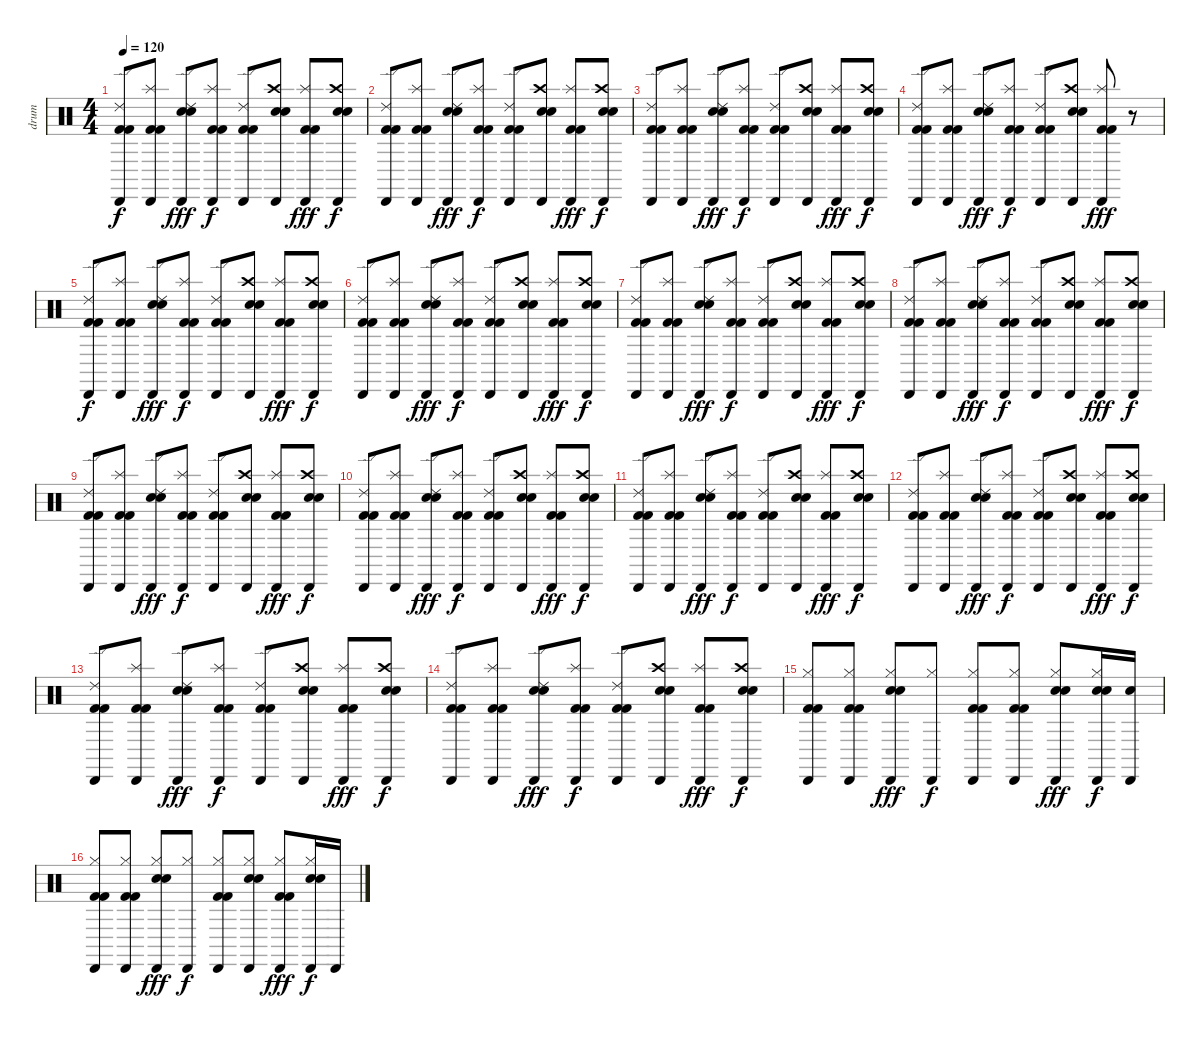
\track ("drum" "drum") {instrument percussion}
\staff {score}
\articulation defaults
\ts (4 4)
\tempo 120
\clef neutral
\ks c
("Cabasa (hit)" "Ride (edge) 2" "Kick (hit) 2" "Kick (hit) 2").8{dy f} ("Cabasa (hit)" "Splash (hit)" "Kick (hit) 2" "Kick (hit) 2").8 ("Cabasa (hit)" "Ride (edge) 2" "Snare (hit) 2" "Snare (hit) 2").8{dy fff} ("Cabasa (hit)" "Splash (hit)" "Kick (hit) 2" "Kick (hit) 2").8{dy f} ("Cabasa (hit)" "Ride (edge) 2" "Kick (hit) 2" "Kick (hit) 2").8 ("Cabasa (hit)" "Crash high (hit)" "Snare (hit) 2" "Snare (hit) 2").8 ("Cabasa (hit)" "Splash (hit)" "Kick (hit) 2" "Kick (hit) 2").8{dy fff} ("Cabasa (hit)" "Crash high (hit)" "Snare (hit) 2" "Snare (hit) 2").8{dy f} |
("Cabasa (hit)" "Ride (edge) 2" "Kick (hit) 2" "Kick (hit) 2").8 ("Cabasa (hit)" "Splash (hit)" "Kick (hit) 2" "Kick (hit) 2").8 ("Cabasa (hit)" "Ride (edge) 2" "Snare (hit) 2" "Snare (hit) 2").8{dy fff} ("Cabasa (hit)" "Splash (hit)" "Kick (hit) 2" "Kick (hit) 2").8{dy f} ("Cabasa (hit)" "Ride (edge) 2" "Kick (hit) 2" "Kick (hit) 2").8 ("Cabasa (hit)" "Crash high (hit)" "Snare (hit) 2" "Snare (hit) 2").8 ("Cabasa (hit)" "Splash (hit)" "Kick (hit) 2" "Kick (hit) 2").8{dy fff} ("Cabasa (hit)" "Crash high (hit)" "Snare (hit) 2" "Snare (hit) 2").8{dy f} |
("Cabasa (hit)" "Ride (edge) 2" "Kick (hit) 2" "Kick (hit) 2").8 ("Cabasa (hit)" "Splash (hit)" "Kick (hit) 2" "Kick (hit) 2").8 ("Cabasa (hit)" "Ride (edge) 2" "Snare (hit) 2" "Snare (hit) 2").8{dy fff} ("Cabasa (hit)" "Splash (hit)" "Kick (hit) 2" "Kick (hit) 2").8{dy f} ("Cabasa (hit)" "Ride (edge) 2" "Kick (hit) 2" "Kick (hit) 2").8 ("Cabasa (hit)" "Crash high (hit)" "Snare (hit) 2" "Snare (hit) 2").8 ("Cabasa (hit)" "Splash (hit)" "Kick (hit) 2" "Kick (hit) 2").8{dy fff} ("Cabasa (hit)" "Crash high (hit)" "Snare (hit) 2" "Snare (hit) 2").8{dy f} |
("Cabasa (hit)" "Ride (edge) 2" "Kick (hit) 2" "Kick (hit) 2").8 ("Cabasa (hit)" "Splash (hit)" "Kick (hit) 2" "Kick (hit) 2").8 ("Cabasa (hit)" "Ride (edge) 2" "Snare (hit) 2" "Snare (hit) 2").8{dy fff} ("Cabasa (hit)" "Splash (hit)" "Kick (hit) 2" "Kick (hit) 2").8{dy f} ("Cabasa (hit)" "Ride (edge) 2" "Kick (hit) 2" "Kick (hit) 2").8 ("Cabasa (hit)" "Crash high (hit)" "Snare (hit) 2" "Snare (hit) 2").8 ("Cabasa (hit)" "Splash (hit)" "Kick (hit) 2" "Kick (hit) 2").8{dy fff} r.8 |
("Cabasa (hit)" "Ride (edge) 2" "Kick (hit) 2" "Kick (hit) 2").8{dy f} ("Cabasa (hit)" "Splash (hit)" "Kick (hit) 2" "Kick (hit) 2").8 ("Cabasa (hit)" "Ride (edge) 2" "Snare (hit) 2" "Snare (hit) 2").8{dy fff} ("Cabasa (hit)" "Splash (hit)" "Kick (hit) 2" "Kick (hit) 2").8{dy f} ("Cabasa (hit)" "Ride (edge) 2" "Kick (hit) 2" "Kick (hit) 2").8 ("Cabasa (hit)" "Crash high (hit)" "Snare (hit) 2" "Snare (hit) 2").8 ("Cabasa (hit)" "Splash (hit)" "Kick (hit) 2" "Kick (hit) 2").8{dy fff} ("Cabasa (hit)" "Crash high (hit)" "Snare (hit) 2" "Snare (hit) 2").8{dy f} |
("Cabasa (hit)" "Ride (edge) 2" "Kick (hit) 2" "Kick (hit) 2").8 ("Cabasa (hit)" "Splash (hit)" "Kick (hit) 2" "Kick (hit) 2").8 ("Cabasa (hit)" "Ride (edge) 2" "Snare (hit) 2" "Snare (hit) 2").8{dy fff} ("Cabasa (hit)" "Splash (hit)" "Kick (hit) 2" "Kick (hit) 2").8{dy f} ("Cabasa (hit)" "Ride (edge) 2" "Kick (hit) 2" "Kick (hit) 2").8 ("Cabasa (hit)" "Crash high (hit)" "Snare (hit) 2" "Snare (hit) 2").8 ("Cabasa (hit)" "Splash (hit)" "Kick (hit) 2" "Kick (hit) 2").8{dy fff} ("Cabasa (hit)" "Crash high (hit)" "Snare (hit) 2" "Snare (hit) 2").8{dy f} |
("Cabasa (hit)" "Ride (edge) 2" "Kick (hit) 2" "Kick (hit) 2").8 ("Cabasa (hit)" "Splash (hit)" "Kick (hit) 2" "Kick (hit) 2").8 ("Cabasa (hit)" "Ride (edge) 2" "Snare (hit) 2" "Snare (hit) 2").8{dy fff} ("Cabasa (hit)" "Splash (hit)" "Kick (hit) 2" "Kick (hit) 2").8{dy f} ("Cabasa (hit)" "Ride (edge) 2" "Kick (hit) 2" "Kick (hit) 2").8 ("Cabasa (hit)" "Crash high (hit)" "Snare (hit) 2" "Snare (hit) 2").8 ("Cabasa (hit)" "Splash (hit)" "Kick (hit) 2" "Kick (hit) 2").8{dy fff} ("Cabasa (hit)" "Crash high (hit)" "Snare (hit) 2" "Snare (hit) 2").8{dy f} |
("Cabasa (hit)" "Ride (edge) 2" "Kick (hit) 2" "Kick (hit) 2").8 ("Cabasa (hit)" "Splash (hit)" "Kick (hit) 2" "Kick (hit) 2").8 ("Cabasa (hit)" "Ride (edge) 2" "Snare (hit) 2" "Snare (hit) 2").8{dy fff} ("Cabasa (hit)" "Splash (hit)" "Kick (hit) 2" "Kick (hit) 2").8{dy f} ("Cabasa (hit)" "Ride (edge) 2" "Kick (hit) 2" "Kick (hit) 2").8 ("Cabasa (hit)" "Crash high (hit)" "Snare (hit) 2" "Snare (hit) 2").8 ("Cabasa (hit)" "Splash (hit)" "Kick (hit) 2" "Kick (hit) 2").8{dy fff} ("Cabasa (hit)" "Crash high (hit)" "Snare (hit) 2" "Snare (hit) 2").8{dy f} |
("Cabasa (hit)" "Ride (edge) 2" "Kick (hit) 2" "Kick (hit) 2").8 ("Cabasa (hit)" "Splash (hit)" "Kick (hit) 2" "Kick (hit) 2").8 ("Cabasa (hit)" "Ride (edge) 2" "Snare (hit) 2" "Snare (hit) 2").8{dy fff} ("Cabasa (hit)" "Splash (hit)" "Kick (hit) 2" "Kick (hit) 2").8{dy f} ("Cabasa (hit)" "Ride (edge) 2" "Kick (hit) 2" "Kick (hit) 2").8 ("Cabasa (hit)" "Crash high (hit)" "Snare (hit) 2" "Snare (hit) 2").8 ("Cabasa (hit)" "Splash (hit)" "Kick (hit) 2" "Kick (hit) 2").8{dy fff} ("Cabasa (hit)" "Crash high (hit)" "Snare (hit) 2" "Snare (hit) 2").8{dy f} |
("Cabasa (hit)" "Ride (edge) 2" "Kick (hit) 2" "Kick (hit) 2").8 ("Cabasa (hit)" "Splash (hit)" "Kick (hit) 2" "Kick (hit) 2").8 ("Cabasa (hit)" "Ride (edge) 2" "Snare (hit) 2" "Snare (hit) 2").8{dy fff} ("Cabasa (hit)" "Splash (hit)" "Kick (hit) 2" "Kick (hit) 2").8{dy f} ("Cabasa (hit)" "Ride (edge) 2" "Kick (hit) 2" "Kick (hit) 2").8 ("Cabasa (hit)" "Crash high (hit)" "Snare (hit) 2" "Snare (hit) 2").8 ("Cabasa (hit)" "Splash (hit)" "Kick (hit) 2" "Kick (hit) 2").8{dy fff} ("Cabasa (hit)" "Crash high (hit)" "Snare (hit) 2" "Snare (hit) 2").8{dy f} |
("Cabasa (hit)" "Ride (edge) 2" "Kick (hit) 2" "Kick (hit) 2").8 ("Cabasa (hit)" "Splash (hit)" "Kick (hit) 2" "Kick (hit) 2").8 ("Cabasa (hit)" "Ride (edge) 2" "Snare (hit) 2" "Snare (hit) 2").8{dy fff} ("Cabasa (hit)" "Splash (hit)" "Kick (hit) 2" "Kick (hit) 2").8{dy f} ("Cabasa (hit)" "Ride (edge) 2" "Kick (hit) 2" "Kick (hit) 2").8 ("Cabasa (hit)" "Crash high (hit)" "Snare (hit) 2" "Snare (hit) 2").8 ("Cabasa (hit)" "Splash (hit)" "Kick (hit) 2" "Kick (hit) 2").8{dy fff} ("Cabasa (hit)" "Crash high (hit)" "Snare (hit) 2" "Snare (hit) 2").8{dy f} |
("Cabasa (hit)" "Ride (edge) 2" "Kick (hit) 2" "Kick (hit) 2").8 ("Cabasa (hit)" "Splash (hit)" "Kick (hit) 2" "Kick (hit) 2").8 ("Cabasa (hit)" "Ride (edge) 2" "Snare (hit) 2" "Snare (hit) 2").8{dy fff} ("Cabasa (hit)" "Splash (hit)" "Kick (hit) 2" "Kick (hit) 2").8{dy f} ("Cabasa (hit)" "Ride (edge) 2" "Kick (hit) 2" "Kick (hit) 2").8 ("Cabasa (hit)" "Crash high (hit)" "Snare (hit) 2" "Snare (hit) 2").8 ("Cabasa (hit)" "Splash (hit)" "Kick (hit) 2" "Kick (hit) 2").8{dy fff} ("Cabasa (hit)" "Crash high (hit)" "Snare (hit) 2" "Snare (hit) 2").8{dy f} |
("Cabasa (hit)" "Ride (edge) 2" "Kick (hit) 2" "Kick (hit) 2").8 ("Cabasa (hit)" "Splash (hit)" "Kick (hit) 2" "Kick (hit) 2").8 ("Cabasa (hit)" "Ride (edge) 2" "Snare (hit) 2" "Snare (hit) 2").8{dy fff} ("Cabasa (hit)" "Splash (hit)" "Kick (hit) 2" "Kick (hit) 2").8{dy f} ("Cabasa (hit)" "Ride (edge) 2" "Kick (hit) 2" "Kick (hit) 2").8 ("Cabasa (hit)" "Crash high (hit)" "Snare (hit) 2" "Snare (hit) 2").8 ("Cabasa (hit)" "Splash (hit)" "Kick (hit) 2" "Kick (hit) 2").8{dy fff} ("Cabasa (hit)" "Crash high (hit)" "Snare (hit) 2" "Snare (hit) 2").8{dy f} |
("Cabasa (hit)" "Ride (edge) 2" "Kick (hit) 2" "Kick (hit) 2").8 ("Cabasa (hit)" "Splash (hit)" "Kick (hit) 2" "Kick (hit) 2").8 ("Cabasa (hit)" "Ride (edge) 2" "Snare (hit) 2" "Snare (hit) 2").8{dy fff} ("Cabasa (hit)" "Splash (hit)" "Kick (hit) 2" "Kick (hit) 2").8{dy f} ("Cabasa (hit)" "Ride (edge) 2" "Kick (hit) 2" "Kick (hit) 2").8 ("Cabasa (hit)" "Crash high (hit)" "Snare (hit) 2" "Snare (hit) 2").8 ("Cabasa (hit)" "Splash (hit)" "Kick (hit) 2" "Kick (hit) 2").8{dy fff} ("Cabasa (hit)" "Crash high (hit)" "Snare (hit) 2" "Snare (hit) 2").8{dy f} |
("Cabasa (hit)" "Hi-Hat (closed)" "Kick (hit) 2" "Kick (hit) 2").8 ("Cabasa (hit)" "Hi-Hat (closed)" "Kick (hit) 2" "Kick (hit) 2").8 ("Cabasa (hit)" "Hi-Hat (closed)" "Snare (hit) 2" "Snare (hit) 2").8{dy fff} ("Cabasa (hit)" "Hi-Hat (closed)").8{dy f} ("Cabasa (hit)" "Hi-Hat (closed)" "Kick (hit) 2" "Kick (hit) 2").8 ("Cabasa (hit)" "Hi-Hat (closed)" "Kick (hit) 2" "Kick (hit) 2").8 ("Cabasa (hit)" "Hi-Hat (closed)" "Snare (hit) 2" "Snare (hit) 2").8{dy fff} ("Cabasa (hit)" "Hi-Hat (closed)" "Snare (hit) 2" "Snare (hit) 2").16{dy f} ("Cabasa (hit)" "Snare (hit) 2").16 |
("Cabasa (hit)" "Hi-Hat (closed)" "Kick (hit) 2" "Kick (hit) 2").8 ("Cabasa (hit)" "Hi-Hat (closed)" "Kick (hit) 2" "Kick (hit) 2").8 ("Cabasa (hit)" "Hi-Hat (closed)" "Snare (hit) 2" "Snare (hit) 2").8{dy fff} ("Cabasa (hit)" "Hi-Hat (closed)").8{dy f} ("Cabasa (hit)" "Hi-Hat (closed)" "Kick (hit) 2" "Kick (hit) 2").8 ("Cabasa (hit)" "Hi-Hat (closed)" "Snare (hit) 2" "Snare (hit) 2").8 ("Cabasa (hit)" "Hi-Hat (closed)" "Kick (hit) 2" "Kick (hit) 2").8{dy fff} ("Cabasa (hit)" "Hi-Hat (closed)" "Snare (hit) 2" "Snare (hit) 2").16{dy f} "Cabasa (hit)".16
